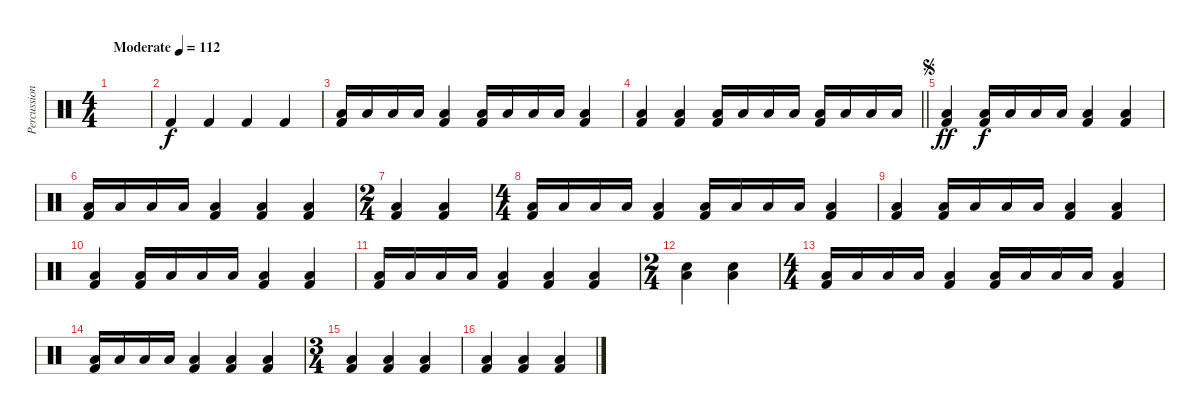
\track ("Percussion" "Percussion") {instrument percussion}
\staff {score}
\articulation defaults
\ts (4 4)
\tempo (112 "Moderate")
\clef neutral
\ks c
|
"Kick (hit) 2".4 "Kick (hit) 2".4 "Kick (hit) 2".4 "Kick (hit) 2".4 |
("Low Floor Tom (hit)" "Kick (hit) 2").16 "Low Floor Tom (hit)".16 "Low Floor Tom (hit)".16 "Low Floor Tom (hit)".16 ("Low Floor Tom (hit)" "Kick (hit) 2").4 ("Low Floor Tom (hit)" "Kick (hit) 2").16 "Low Floor Tom (hit)".16 "Low Floor Tom (hit)".16 "Low Floor Tom (hit)".16 ("Low Floor Tom (hit)" "Kick (hit) 2").4 |
\barLineRight lightlight
("Low Floor Tom (hit)" "Kick (hit) 2").4 ("Low Floor Tom (hit)" "Kick (hit) 2").4 ("Low Floor Tom (hit)" "Kick (hit) 2").16 "Low Floor Tom (hit)".16 "Low Floor Tom (hit)".16 "Low Floor Tom (hit)".16 ("Low Floor Tom (hit)" "Kick (hit) 2").16 "Low Floor Tom (hit)".16 "Low Floor Tom (hit)".16 "Low Floor Tom (hit)".16 |
\jump segno
("Low Floor Tom (hit)" "Kick (hit) 2").4{dy ff} ("Low Floor Tom (hit)" "Kick (hit) 2").16{dy f} "Low Floor Tom (hit)".16 "Low Floor Tom (hit)".16 "Low Floor Tom (hit)".16 ("Low Floor Tom (hit)" "Kick (hit) 2").4 ("Low Floor Tom (hit)" "Kick (hit) 2").4 |
("Low Floor Tom (hit)" "Kick (hit) 2").16 "Low Floor Tom (hit)".16 "Low Floor Tom (hit)".16 "Low Floor Tom (hit)".16 ("Low Floor Tom (hit)" "Kick (hit) 2").4 ("Low Floor Tom (hit)" "Kick (hit) 2").4 ("Low Floor Tom (hit)" "Kick (hit) 2").4 |
\ts (2 4)
("Low Floor Tom (hit)" "Kick (hit) 2").4 ("Low Floor Tom (hit)" "Kick (hit) 2").4 |
\ts (4 4)
("Low Floor Tom (hit)" "Kick (hit) 2").16 "Low Floor Tom (hit)".16 "Low Floor Tom (hit)".16 "Low Floor Tom (hit)".16 ("Low Floor Tom (hit)" "Kick (hit) 2").4 ("Low Floor Tom (hit)" "Kick (hit) 2").16 "Low Floor Tom (hit)".16 "Low Floor Tom (hit)".16 "Low Floor Tom (hit)".16 ("Low Floor Tom (hit)" "Kick (hit) 2").4 |
("Low Floor Tom (hit)" "Kick (hit) 2").4 ("Low Floor Tom (hit)" "Kick (hit) 2").16 "Low Floor Tom (hit)".16 "Low Floor Tom (hit)".16 "Low Floor Tom (hit)".16 ("Low Floor Tom (hit)" "Kick (hit) 2").4 ("Low Floor Tom (hit)" "Kick (hit) 2").4 |
("Low Floor Tom (hit)" "Kick (hit) 2").4 ("Low Floor Tom (hit)" "Kick (hit) 2").16 "Low Floor Tom (hit)".16 "Low Floor Tom (hit)".16 "Low Floor Tom (hit)".16 ("Low Floor Tom (hit)" "Kick (hit) 2").4 ("Low Floor Tom (hit)" "Kick (hit) 2").4 |
("Low Floor Tom (hit)" "Kick (hit) 2").16 "Low Floor Tom (hit)".16 "Low Floor Tom (hit)".16 "Low Floor Tom (hit)".16 ("Low Floor Tom (hit)" "Kick (hit) 2").4 ("Low Floor Tom (hit)" "Kick (hit) 2").4 ("Low Floor Tom (hit)" "Kick (hit) 2").4 |
\ts (2 4)
("Low Floor Tom (hit)" "Snare (hit)").4 ("Low Floor Tom (hit)" "Snare (hit)").4 |
\ts (4 4)
("Low Floor Tom (hit)" "Kick (hit) 2").16 "Low Floor Tom (hit)".16 "Low Floor Tom (hit)".16 "Low Floor Tom (hit)".16 ("Low Floor Tom (hit)" "Kick (hit) 2").4 ("Low Floor Tom (hit)" "Kick (hit) 2").16 "Low Floor Tom (hit)".16 "Low Floor Tom (hit)".16 "Low Floor Tom (hit)".16 ("Low Floor Tom (hit)" "Kick (hit) 2").4 |
("Low Floor Tom (hit)" "Kick (hit) 2").16 "Low Floor Tom (hit)".16 "Low Floor Tom (hit)".16 "Low Floor Tom (hit)".16 ("Low Floor Tom (hit)" "Kick (hit) 2").4 ("Low Floor Tom (hit)" "Kick (hit) 2").4 ("Low Floor Tom (hit)" "Kick (hit) 2").4 |
\ts (3 4)
("Low Floor Tom (hit)" "Kick (hit) 2").4 ("Low Floor Tom (hit)" "Kick (hit) 2").4 ("Low Floor Tom (hit)" "Kick (hit) 2").4 |
("Low Floor Tom (hit)" "Kick (hit) 2").4 ("Low Floor Tom (hit)" "Kick (hit) 2").4 ("Low Floor Tom (hit)" "Kick (hit) 2").4
